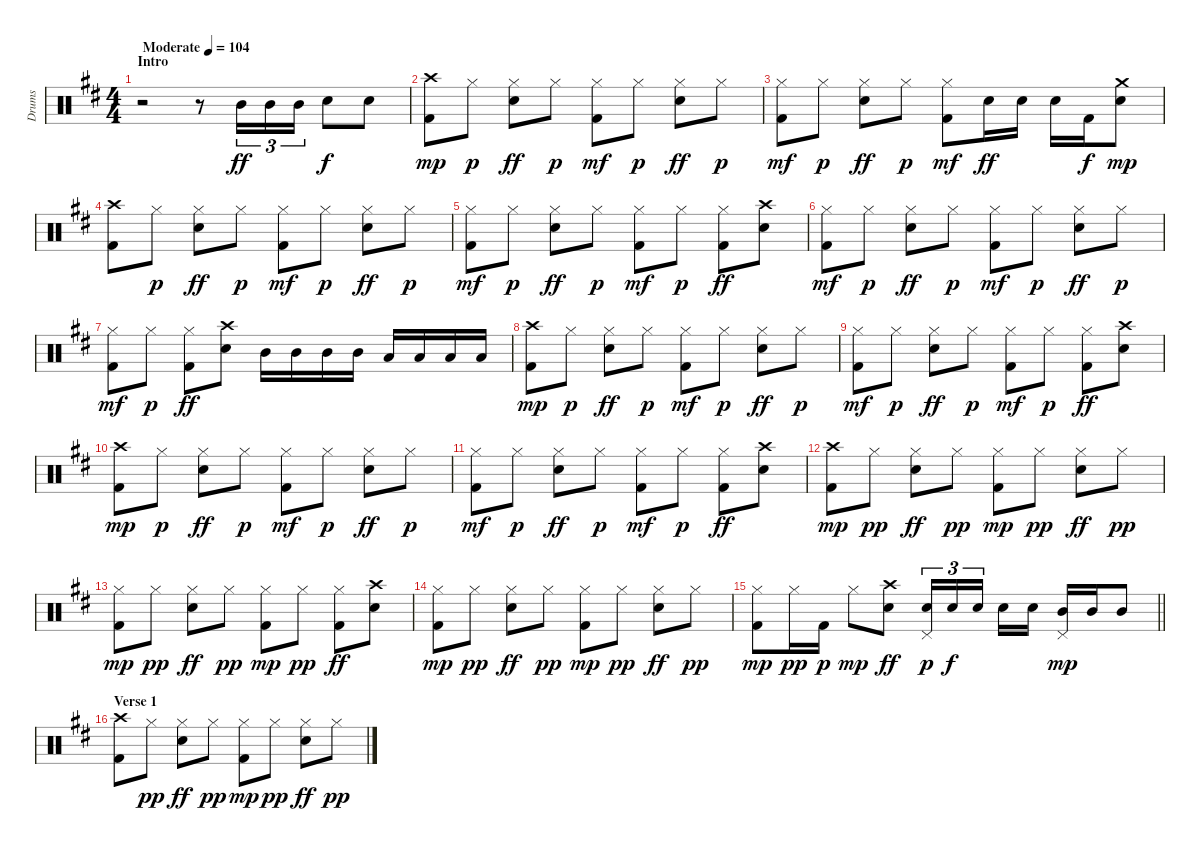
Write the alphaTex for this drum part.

\track ("Drums" "Drums") {instrument percussion}
\staff {score}
\articulation defaults
\ts (4 4)
\section ("" "Intro")
\tempo (104 "Moderate")
\clef neutral
\ks bminor
r.2{dy ff} r.8 "Mid Tom (hit)".16{tu (3 2)} "Mid Tom (hit)".16{tu (3 2)} "Mid Tom (hit)".16{tu (3 2)} "Electric Snare (hit)".8{dy f} "Electric Snare (hit)".8 |
("Crash high (hit)" "Kick (hit) 2").8{dy mp} "Hi-Hat (closed)".8{dy p} ("Hi-Hat (closed)" "Electric Snare (hit)").8{dy ff} "Hi-Hat (closed)".8{dy p} ("Hi-Hat (closed)" "Kick (hit) 2").8{dy mf} "Hi-Hat (closed)".8{dy p} ("Hi-Hat (closed)" "Electric Snare (hit)").8{dy ff} "Hi-Hat (closed)".8{dy p} |
("Hi-Hat (closed)" "Kick (hit) 2").8{dy mf} "Hi-Hat (closed)".8{dy p} ("Hi-Hat (closed)" "Electric Snare (hit)").8{dy ff} "Hi-Hat (closed)".8{dy p} ("Hi-Hat (closed)" "Kick (hit) 2").8{dy mf} "Electric Snare (hit)".16{dy ff} "Electric Snare (hit)".16 "Electric Snare (hit)".16 "Kick (hit) 2".16{dy f} ("Electric Snare (hit)" "Crash medium (hit)").8{dy mp} |
("Crash high (hit)" "Kick (hit) 2").8 "Hi-Hat (closed)".8{dy p} ("Hi-Hat (closed)" "Electric Snare (hit)").8{dy ff} "Hi-Hat (closed)".8{dy p} ("Hi-Hat (closed)" "Kick (hit) 2").8{dy mf} "Hi-Hat (closed)".8{dy p} ("Hi-Hat (closed)" "Electric Snare (hit)").8{dy ff} "Hi-Hat (closed)".8{dy p} |
("Hi-Hat (closed)" "Kick (hit) 2").8{dy mf} "Hi-Hat (closed)".8{dy p} ("Hi-Hat (closed)" "Electric Snare (hit)").8{dy ff} "Hi-Hat (closed)".8{dy p} ("Hi-Hat (closed)" "Kick (hit) 2").8{dy mf} "Hi-Hat (closed)".8{dy p} ("Hi-Hat (closed)" "Kick (hit) 2").8{dy ff} ("Crash high (hit)" "Electric Snare (hit)").8 |
("Hi-Hat (closed)" "Kick (hit) 2").8{dy mf} "Hi-Hat (closed)".8{dy p} ("Hi-Hat (closed)" "Electric Snare (hit)").8{dy ff} "Hi-Hat (closed)".8{dy p} ("Hi-Hat (closed)" "Kick (hit) 2").8{dy mf} "Hi-Hat (closed)".8{dy p} ("Hi-Hat (closed)" "Electric Snare (hit)").8{dy ff} "Hi-Hat (closed)".8{dy p} |
("Hi-Hat (closed)" "Kick (hit) 2").8{dy mf} "Hi-Hat (closed)".8{dy p} ("Hi-Hat (closed)" "Kick (hit) 2").8{dy ff} ("Crash high (hit)" "Electric Snare (hit)").8 "Mid Tom (hit)".16 "Mid Tom (hit)".16 "Mid Tom (hit)".16 "Mid Tom (hit)".16 "Low Tom (hit)".16 "Low Tom (hit)".16 "Low Tom (hit)".16 "Low Tom (hit)".16 |
("Crash high (hit)" "Kick (hit) 2").8{dy mp} "Hi-Hat (closed)".8{dy p} ("Hi-Hat (closed)" "Electric Snare (hit)").8{dy ff} "Hi-Hat (closed)".8{dy p} ("Hi-Hat (closed)" "Kick (hit) 2").8{dy mf} "Hi-Hat (closed)".8{dy p} ("Hi-Hat (closed)" "Electric Snare (hit)").8{dy ff} "Hi-Hat (closed)".8{dy p} |
("Hi-Hat (closed)" "Kick (hit) 2").8{dy mf} "Hi-Hat (closed)".8{dy p} ("Hi-Hat (closed)" "Electric Snare (hit)").8{dy ff} "Hi-Hat (closed)".8{dy p} ("Hi-Hat (closed)" "Kick (hit) 2").8{dy mf} "Hi-Hat (closed)".8{dy p} ("Hi-Hat (closed)" "Kick (hit) 2").8{dy ff} ("Crash high (hit)" "Electric Snare (hit)").8 |
("Crash high (hit)" "Kick (hit) 2").8{dy mp} "Hi-Hat (closed)".8{dy p} ("Hi-Hat (closed)" "Electric Snare (hit)").8{dy ff} "Hi-Hat (closed)".8{dy p} ("Hi-Hat (closed)" "Kick (hit) 2").8{dy mf} "Hi-Hat (closed)".8{dy p} ("Hi-Hat (closed)" "Electric Snare (hit)").8{dy ff} "Hi-Hat (closed)".8{dy p} |
("Hi-Hat (closed)" "Kick (hit) 2").8{dy mf} "Hi-Hat (closed)".8{dy p} ("Hi-Hat (closed)" "Electric Snare (hit)").8{dy ff} "Hi-Hat (closed)".8{dy p} ("Hi-Hat (closed)" "Kick (hit) 2").8{dy mf} "Hi-Hat (closed)".8{dy p} ("Hi-Hat (closed)" "Kick (hit) 2").8{dy ff} ("Crash high (hit)" "Electric Snare (hit)").8 |
("Crash high (hit)" "Kick (hit) 2").8{dy mp} "Hi-Hat (closed)".8{dy pp} ("Hi-Hat (closed)" "Electric Snare (hit)").8{dy ff} "Hi-Hat (closed)".8{dy pp} ("Hi-Hat (closed)" "Kick (hit) 2").8{dy mp} "Hi-Hat (closed)".8{dy pp} ("Hi-Hat (closed)" "Electric Snare (hit)").8{dy ff} "Hi-Hat (closed)".8{dy pp} |
("Hi-Hat (closed)" "Kick (hit) 2").8{dy mp} "Hi-Hat (closed)".8{dy pp} ("Hi-Hat (closed)" "Electric Snare (hit)").8{dy ff} "Hi-Hat (closed)".8{dy pp} ("Hi-Hat (closed)" "Kick (hit) 2").8{dy mp} "Hi-Hat (closed)".8{dy pp} ("Hi-Hat (closed)" "Kick (hit) 2").8{dy ff} ("Crash high (hit)" "Electric Snare (hit)").8 |
("Hi-Hat (closed)" "Kick (hit) 2").8{dy mp} "Hi-Hat (closed)".8{dy pp} ("Hi-Hat (closed)" "Electric Snare (hit)").8{dy ff} "Hi-Hat (closed)".8{dy pp} ("Hi-Hat (closed)" "Kick (hit) 2").8{dy mp} "Hi-Hat (closed)".8{dy pp} ("Hi-Hat (closed)" "Electric Snare (hit)").8{dy ff} "Hi-Hat (closed)".8{dy pp} |
\barLineRight lightlight
("Hi-Hat (closed)" "Kick (hit) 2").8{dy mp} "Hi-Hat (closed)".16{dy pp} "Kick (hit) 2".16{dy p} "Hi-Hat (closed)".8{dy mp} ("Crash high (hit)" "Electric Snare (hit)").8{dy ff} ("Electric Snare (hit)" "Pedal Hi-Hat (hit)").16{tu (3 2) dy p} "Electric Snare (hit)".16{tu (3 2) dy f} "Electric Snare (hit)".16{tu (3 2) beam splitsecondary} "Electric Snare (hit)".16 "Electric Snare (hit)".16 ("Mid Tom (hit)" "Pedal Hi-Hat (hit)").16{dy mp} "Mid Tom (hit)".16 "Mid Tom (hit)".8 |
\section ("" "Verse 1")
("Crash high (hit)" "Kick (hit) 2").8 "Hi-Hat (closed)".8{dy pp} ("Hi-Hat (closed)" "Electric Snare (hit)").8{dy ff} "Hi-Hat (closed)".8{dy pp} ("Hi-Hat (closed)" "Kick (hit) 2").8{dy mp} "Hi-Hat (closed)".8{dy pp} ("Hi-Hat (closed)" "Electric Snare (hit)").8{dy ff} "Hi-Hat (closed)".8{dy pp}
